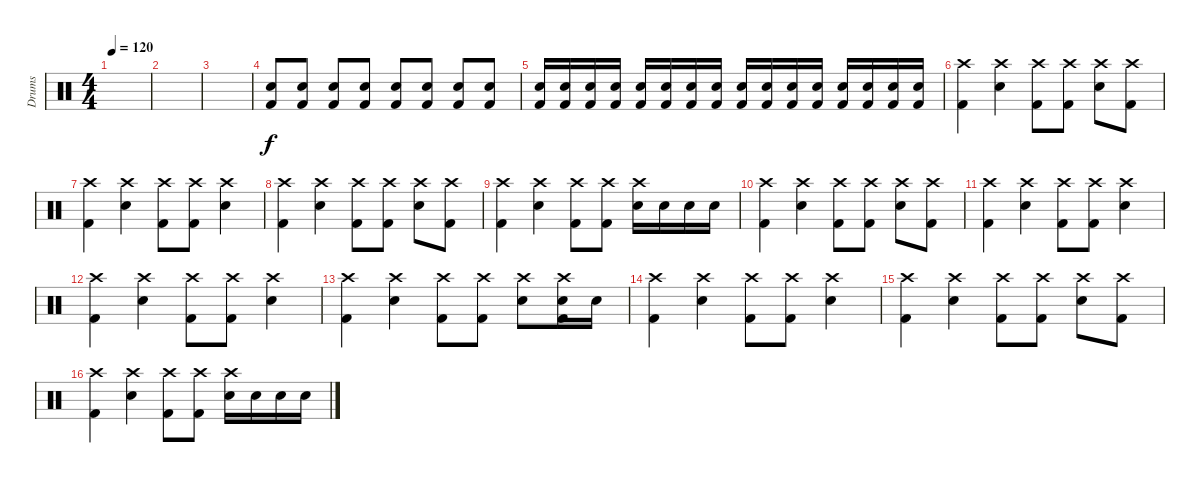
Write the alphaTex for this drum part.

\track ("Drums" "Drums") {instrument percussion}
\staff {score}
\articulation defaults
\ts (4 4)
\tempo 120
\clef neutral
\ks c
|
|
|
("Electric Snare (hit)" "Kick (hit) 2").8 ("Electric Snare (hit)" "Kick (hit) 2").8 ("Electric Snare (hit)" "Kick (hit) 2").8 ("Electric Snare (hit)" "Kick (hit) 2").8 ("Electric Snare (hit)" "Kick (hit) 2").8 ("Electric Snare (hit)" "Kick (hit) 2").8 ("Electric Snare (hit)" "Kick (hit) 2").8 ("Electric Snare (hit)" "Kick (hit) 2").8 |
("Electric Snare (hit)" "Kick (hit) 2").16 ("Electric Snare (hit)" "Kick (hit) 2").16 ("Electric Snare (hit)" "Kick (hit) 2").16 ("Electric Snare (hit)" "Kick (hit) 2").16 ("Electric Snare (hit)" "Kick (hit) 2").16 ("Electric Snare (hit)" "Kick (hit) 2").16 ("Electric Snare (hit)" "Kick (hit) 2").16 ("Electric Snare (hit)" "Kick (hit) 2").16 ("Electric Snare (hit)" "Kick (hit) 2").16 ("Electric Snare (hit)" "Kick (hit) 2").16 ("Electric Snare (hit)" "Kick (hit) 2").16 ("Electric Snare (hit)" "Kick (hit) 2").16 ("Electric Snare (hit)" "Kick (hit) 2").16 ("Electric Snare (hit)" "Kick (hit) 2").16 ("Electric Snare (hit)" "Kick (hit) 2").16 ("Electric Snare (hit)" "Kick (hit) 2").16 |
("Crash high (hit)" "Kick (hit) 2").4 ("Crash high (hit)" "Electric Snare (hit)").4 ("Crash high (hit)" "Kick (hit) 2").8 ("Crash high (hit)" "Kick (hit) 2").8 ("Crash high (hit)" "Electric Snare (hit)").8 ("Crash high (hit)" "Kick (hit) 2").8 |
("Crash high (hit)" "Kick (hit) 2").4 ("Crash high (hit)" "Electric Snare (hit)").4 ("Crash high (hit)" "Kick (hit) 2").8 ("Crash high (hit)" "Kick (hit) 2").8 ("Crash high (hit)" "Electric Snare (hit)").4 |
("Crash high (hit)" "Kick (hit) 2").4 ("Crash high (hit)" "Electric Snare (hit)").4 ("Crash high (hit)" "Kick (hit) 2").8 ("Crash high (hit)" "Kick (hit) 2").8 ("Crash high (hit)" "Electric Snare (hit)").8 ("Crash high (hit)" "Kick (hit) 2").8 |
("Crash high (hit)" "Kick (hit) 2").4 ("Crash high (hit)" "Electric Snare (hit)").4 ("Crash high (hit)" "Kick (hit) 2").8 ("Crash high (hit)" "Kick (hit) 2").8 ("Crash high (hit)" "Electric Snare (hit)").16 "Electric Snare (hit)".16 "Electric Snare (hit)".16 "Electric Snare (hit)".16 |
("Crash high (hit)" "Kick (hit) 2").4 ("Crash high (hit)" "Electric Snare (hit)").4 ("Crash high (hit)" "Kick (hit) 2").8 ("Crash high (hit)" "Kick (hit) 2").8 ("Crash high (hit)" "Electric Snare (hit)").8 ("Crash high (hit)" "Kick (hit) 2").8 |
("Crash high (hit)" "Kick (hit) 2").4 ("Crash high (hit)" "Electric Snare (hit)").4 ("Crash high (hit)" "Kick (hit) 2").8 ("Crash high (hit)" "Kick (hit) 2").8 ("Crash high (hit)" "Electric Snare (hit)").4 |
("Crash high (hit)" "Kick (hit) 2").4 ("Crash high (hit)" "Electric Snare (hit)").4 ("Crash high (hit)" "Kick (hit) 2").8 ("Crash high (hit)" "Kick (hit) 2").8 ("Crash high (hit)" "Electric Snare (hit)").4 |
("Crash high (hit)" "Kick (hit) 2").4 ("Crash high (hit)" "Electric Snare (hit)").4 ("Crash high (hit)" "Kick (hit) 2").8 ("Crash high (hit)" "Kick (hit) 2").8 ("Crash high (hit)" "Electric Snare (hit)").8 ("Crash high (hit)" "Electric Snare (hit)" "Kick (hit) 2").16 "Electric Snare (hit)".16 |
("Crash high (hit)" "Kick (hit) 2").4 ("Crash high (hit)" "Electric Snare (hit)").4 ("Crash high (hit)" "Kick (hit) 2").8 ("Crash high (hit)" "Kick (hit) 2").8 ("Crash high (hit)" "Electric Snare (hit)").4 |
("Crash high (hit)" "Kick (hit) 2").4 ("Crash high (hit)" "Electric Snare (hit)").4 ("Crash high (hit)" "Kick (hit) 2").8 ("Crash high (hit)" "Kick (hit) 2").8 ("Crash high (hit)" "Electric Snare (hit)").8 ("Crash high (hit)" "Kick (hit) 2").8 |
("Crash high (hit)" "Kick (hit) 2").4 ("Crash high (hit)" "Electric Snare (hit)").4 ("Crash high (hit)" "Kick (hit) 2").8 ("Crash high (hit)" "Kick (hit) 2").8 ("Crash high (hit)" "Electric Snare (hit)").16 "Electric Snare (hit)".16 "Electric Snare (hit)".16 "Electric Snare (hit)".16
